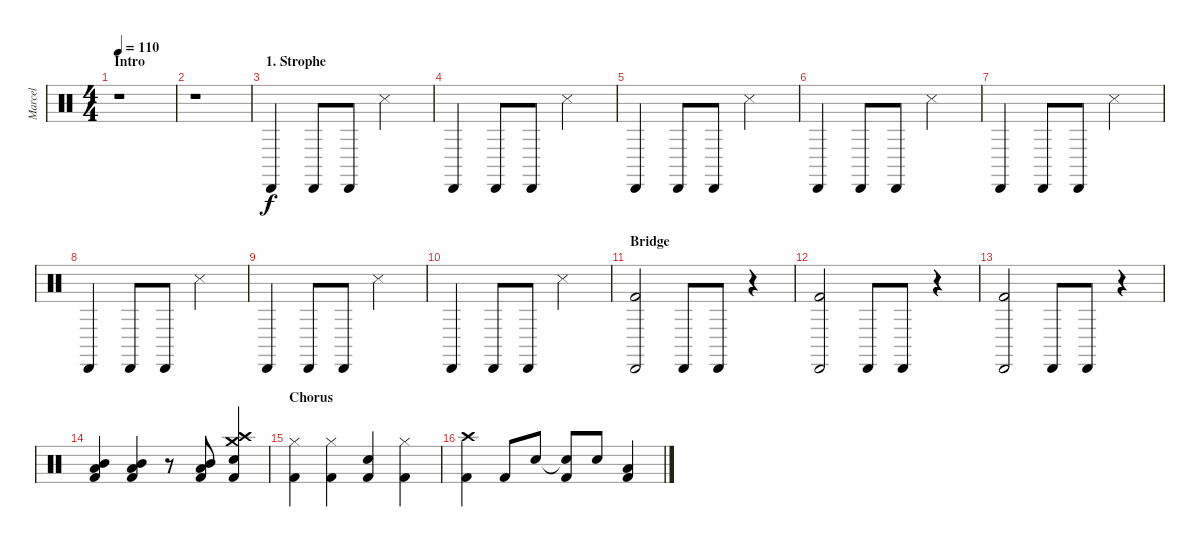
\track ("Marcel" "Marcel") {instrument percussion}
\staff {score}
\articulation defaults
\ts (4 4)
\section ("" "Intro")
\tempo 110
\clef neutral
\ks c
r.1{dy f} |
r.1 |
\section ("" "1. Strophe")
"Cabasa (hit)".4 "Cabasa (hit)".8 "Cabasa (hit)".8 "Snare (side stick) 3".2{volume 16} |
"Cabasa (hit)".4 "Cabasa (hit)".8 "Cabasa (hit)".8 "Snare (side stick) 3".2{volume 16} |
"Cabasa (hit)".4 "Cabasa (hit)".8 "Cabasa (hit)".8 "Snare (side stick) 3".2{volume 16} |
"Cabasa (hit)".4 "Cabasa (hit)".8 "Cabasa (hit)".8 "Snare (side stick) 3".2{volume 16} |
"Cabasa (hit)".4 "Cabasa (hit)".8 "Cabasa (hit)".8 "Snare (side stick) 3".2{volume 16} |
"Cabasa (hit)".4 "Cabasa (hit)".8 "Cabasa (hit)".8 "Snare (side stick) 3".2{volume 16} |
"Cabasa (hit)".4 "Cabasa (hit)".8 "Cabasa (hit)".8 "Snare (side stick) 3".2{volume 16} |
"Cabasa (hit)".4 "Cabasa (hit)".8 "Cabasa (hit)".8 "Snare (side stick) 3".2{volume 16} |
\section ("" "Bridge")
("Cabasa (hit)" "Kick (hit) 2").2 "Cabasa (hit)".8 "Cabasa (hit)".8 r.4 |
("Cabasa (hit)" "Kick (hit) 2").2 "Cabasa (hit)".8 "Cabasa (hit)".8 r.4 |
("Cabasa (hit)" "Kick (hit) 2").2 "Cabasa (hit)".8 "Cabasa (hit)".8 r.4 |
("Low Tom (hit)" "Mid Tom (hit)" "Kick (hit) 2").4 ("Low Tom (hit)" "Mid Tom (hit)" "Kick (hit) 2").4 r.8 ("Low Tom (hit)" "Mid Tom (hit)" "Kick (hit) 2").8 ("Crash medium (hit)" "Crash high (hit)" "Electric Snare (hit)" "Kick (hit) 2").4 |
\section ("" "Chorus")
("Hi-Hat (closed)" "Kick (hit) 2").4 ("Hi-Hat (closed)" "Kick (hit) 2").4 ("Electric Snare (hit)" "Kick (hit) 2").4 ("Hi-Hat (closed)" "Kick (hit) 2").4 |
("Crash high (hit)" "Kick (hit) 2").4 "Kick (hit) 2".8 "Electric Snare (hit)".8 ("Snare (hit) 2"{t} "Kick (hit) 2").8 "Electric Snare (hit)".8 ("Low Tom (hit)" "Kick (hit) 2").4
